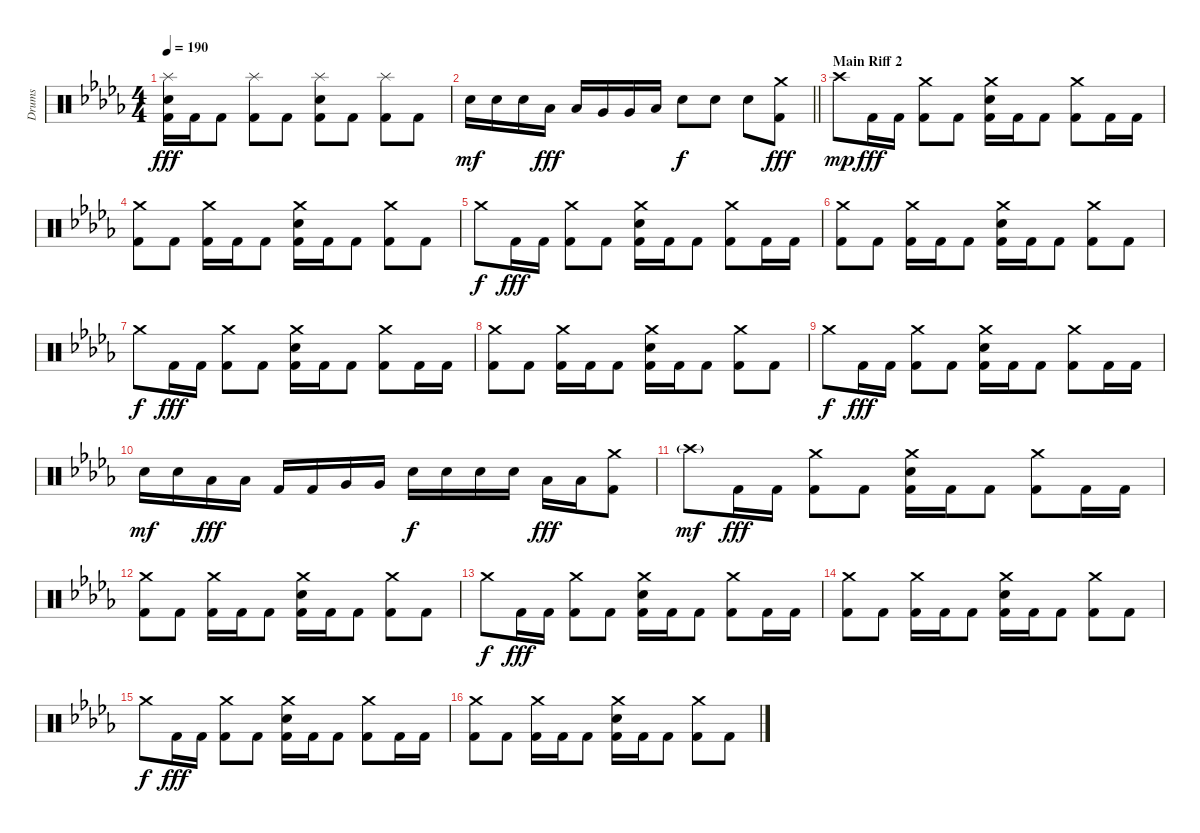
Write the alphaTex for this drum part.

\track ("Drums" "Drums") {instrument percussion}
\staff {score}
\articulation defaults
\ts (4 4)
\tempo 190
\clef neutral
\ks db
("Splash (hit)" "Electric Snare (hit)" "Kick (hit) 2").16{dy fff} "Kick (hit) 2".16 "Kick (hit) 2".8 ("Splash (hit)" "Kick (hit) 2").8 "Kick (hit) 2".8 ("Splash (hit)" "Electric Snare (hit)" "Kick (hit) 2").8 "Kick (hit) 2".8 ("Splash (hit)" "Kick (hit) 2").8 "Kick (hit) 2".8 |
\barLineRight lightlight "Electric Snare (hit)".16{dy mf} "Electric Snare (hit)".16 "Electric Snare (hit)".16 "Low Tom (hit)".16{dy fff} "Low Tom (hit)".16 "Very Low Tom (hit)".16 "Very Low Tom (hit)".16 "Low Floor Tom (hit)".16 "Electric Snare (hit)".8{dy f} "Electric Snare (hit)".8 "Electric Snare (hit)".8
("Crash medium (hit)" "Kick (hit) 2").8{dy fff} |
\section ("" "Main Riff 2")
"Crash high (hit)".8{dy mp} "Kick (hit) 2".16{dy fff} "Kick (hit) 2".16 ("Crash medium (hit)" "Kick (hit) 2").8 "Kick (hit) 2".8 ("Crash medium (hit)" "Electric Snare (hit)" "Kick (hit) 2").16 "Kick (hit) 2".16 "Kick (hit) 2".8 ("Crash medium (hit)" "Kick (hit) 2").8 "Kick (hit) 2".16 "Kick (hit) 2".16 |
("Crash medium (hit)" "Kick (hit) 2").8 "Kick (hit) 2".8 ("Crash medium (hit)" "Kick (hit) 2").16 "Kick (hit) 2".16 "Kick (hit) 2".8 ("Crash medium (hit)" "Electric Snare (hit)" "Kick (hit) 2").16 "Kick (hit) 2".16 "Kick (hit) 2".8 ("Crash medium (hit)" "Kick (hit) 2").8 "Kick (hit) 2".8 |
"Crash medium (hit)".8{dy f} "Kick (hit) 2".16{dy fff} "Kick (hit) 2".16 ("Crash medium (hit)" "Kick (hit) 2").8 "Kick (hit) 2".8 ("Crash medium (hit)" "Electric Snare (hit)" "Kick (hit) 2").16 "Kick (hit) 2".16 "Kick (hit) 2".8 ("Crash medium (hit)" "Kick (hit) 2").8 "Kick (hit) 2".16 "Kick (hit) 2".16 |
("Crash medium (hit)" "Kick (hit) 2").8 "Kick (hit) 2".8 ("Crash medium (hit)" "Kick (hit) 2").16 "Kick (hit) 2".16 "Kick (hit) 2".8 ("Crash medium (hit)" "Electric Snare (hit)" "Kick (hit) 2").16 "Kick (hit) 2".16 "Kick (hit) 2".8 ("Crash medium (hit)" "Kick (hit) 2").8 "Kick (hit) 2".8 |
"Crash medium (hit)".8{dy f} "Kick (hit) 2".16{dy fff} "Kick (hit) 2".16 ("Crash medium (hit)" "Kick (hit) 2").8 "Kick (hit) 2".8 ("Crash medium (hit)" "Electric Snare (hit)" "Kick (hit) 2").16 "Kick (hit) 2".16 "Kick (hit) 2".8 ("Crash medium (hit)" "Kick (hit) 2").8 "Kick (hit) 2".16 "Kick (hit) 2".16 |
("Crash medium (hit)" "Kick (hit) 2").8 "Kick (hit) 2".8 ("Crash medium (hit)" "Kick (hit) 2").16 "Kick (hit) 2".16 "Kick (hit) 2".8 ("Crash medium (hit)" "Electric Snare (hit)" "Kick (hit) 2").16 "Kick (hit) 2".16 "Kick (hit) 2".8 ("Crash medium (hit)" "Kick (hit) 2").8 "Kick (hit) 2".8 |
"Crash medium (hit)".8{dy f} "Kick (hit) 2".16{dy fff} "Kick (hit) 2".16 ("Crash medium (hit)" "Kick (hit) 2").8 "Kick (hit) 2".8 ("Crash medium (hit)" "Electric Snare (hit)" "Kick (hit) 2").16 "Kick (hit) 2".16 "Kick (hit) 2".8 ("Crash medium (hit)" "Kick (hit) 2").8 "Kick (hit) 2".16 "Kick (hit) 2".16 |
"Electric Snare (hit)".16{dy mf} "Electric Snare (hit)".16 "Low Tom (hit)".16{dy fff} "Low Tom (hit)".16 "Kick (hit) 2".16 "Kick (hit) 2".16 "Very Low Tom (hit)".16 "Very Low Tom (hit)".16 "Electric Snare (hit)".16{dy f} "Electric Snare (hit)".16 "Electric Snare (hit)".16 "Electric Snare (hit)".16 "Low Tom (hit)".16{dy fff} "Low Tom (hit)".16 ("Crash medium (hit)" "Kick (hit) 2").8 |
"Crash high (hit)"{g}.8{dy mf} "Kick (hit) 2".16{dy fff} "Kick (hit) 2".16 ("Crash medium (hit)" "Kick (hit) 2").8 "Kick (hit) 2".8 ("Crash medium (hit)" "Electric Snare (hit)" "Kick (hit) 2").16 "Kick (hit) 2".16 "Kick (hit) 2".8 ("Crash medium (hit)" "Kick (hit) 2").8 "Kick (hit) 2".16 "Kick (hit) 2".16 |
("Crash medium (hit)" "Kick (hit) 2").8 "Kick (hit) 2".8 ("Crash medium (hit)" "Kick (hit) 2").16 "Kick (hit) 2".16 "Kick (hit) 2".8 ("Crash medium (hit)" "Electric Snare (hit)" "Kick (hit) 2").16 "Kick (hit) 2".16 "Kick (hit) 2".8 ("Crash medium (hit)" "Kick (hit) 2").8 "Kick (hit) 2".8 |
"Crash medium (hit)".8{dy f} "Kick (hit) 2".16{dy fff} "Kick (hit) 2".16 ("Crash medium (hit)" "Kick (hit) 2").8 "Kick (hit) 2".8 ("Crash medium (hit)" "Electric Snare (hit)" "Kick (hit) 2").16 "Kick (hit) 2".16 "Kick (hit) 2".8 ("Crash medium (hit)" "Kick (hit) 2").8 "Kick (hit) 2".16 "Kick (hit) 2".16 |
("Crash medium (hit)" "Kick (hit) 2").8 "Kick (hit) 2".8 ("Crash medium (hit)" "Kick (hit) 2").16 "Kick (hit) 2".16 "Kick (hit) 2".8 ("Crash medium (hit)" "Electric Snare (hit)" "Kick (hit) 2").16 "Kick (hit) 2".16 "Kick (hit) 2".8 ("Crash medium (hit)" "Kick (hit) 2").8 "Kick (hit) 2".8 |
"Crash medium (hit)".8{dy f} "Kick (hit) 2".16{dy fff} "Kick (hit) 2".16 ("Crash medium (hit)" "Kick (hit) 2").8 "Kick (hit) 2".8 ("Crash medium (hit)" "Electric Snare (hit)" "Kick (hit) 2").16 "Kick (hit) 2".16 "Kick (hit) 2".8 ("Crash medium (hit)" "Kick (hit) 2").8 "Kick (hit) 2".16 "Kick (hit) 2".16 |
("Crash medium (hit)" "Kick (hit) 2").8 "Kick (hit) 2".8 ("Crash medium (hit)" "Kick (hit) 2").16 "Kick (hit) 2".16 "Kick (hit) 2".8 ("Crash medium (hit)" "Electric Snare (hit)" "Kick (hit) 2").16 "Kick (hit) 2".16 "Kick (hit) 2".8 ("Crash medium (hit)" "Kick (hit) 2").8 "Kick (hit) 2".8
